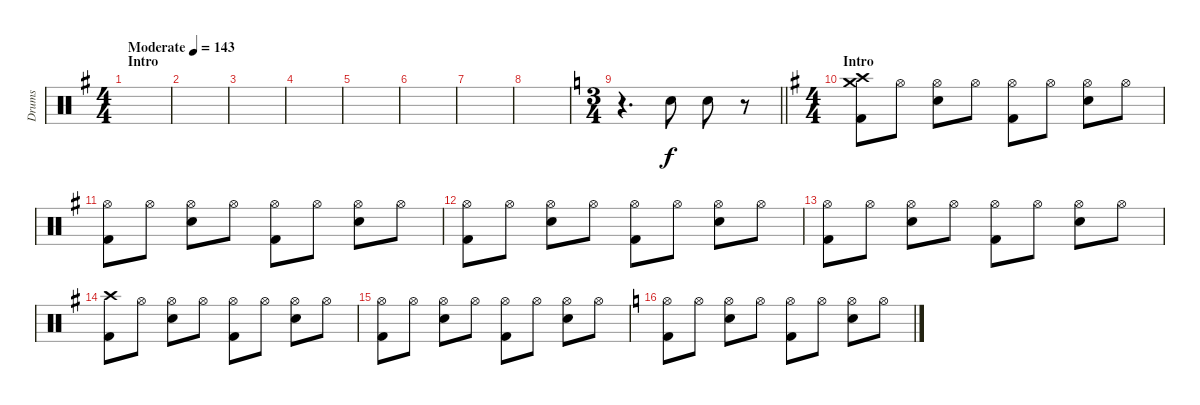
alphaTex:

\track ("Drums" "Drums") {instrument percussion}
\staff {score}
\articulation defaults
\ts (4 4)
\section ("" "Intro ")
\tempo (143 "Moderate")
\clef neutral
\ks g
|
|
|
|
|
|
|
|
\ts (3 4)
\barLineRight lightlight
\ks c
r.4{d} "Snare (hit) 2".8 "Snare (hit) 2".8 r.8 |
\ts (4 4)
\section ("" "Intro")
\ks g
("Crash medium (hit)" "Crash high (hit)" "Kick (hit) 2").8 "Hi-Hat (open)".8 ("Hi-Hat (open)" "Snare (hit) 2").8 "Hi-Hat (open)".8 ("Hi-Hat (open)" "Kick (hit) 2").8 "Hi-Hat (open)".8 ("Hi-Hat (open)" "Snare (hit) 2").8 "Hi-Hat (open)".8 |
("Hi-Hat (open)" "Kick (hit) 2").8 "Hi-Hat (open)".8 ("Hi-Hat (open)" "Snare (hit) 2").8 "Hi-Hat (open)".8 ("Hi-Hat (open)" "Kick (hit) 2").8 "Hi-Hat (open)".8 ("Hi-Hat (open)" "Snare (hit) 2").8 "Hi-Hat (open)".8 |
("Hi-Hat (open)" "Kick (hit) 2").8 "Hi-Hat (open)".8 ("Hi-Hat (open)" "Snare (hit) 2").8 "Hi-Hat (open)".8 ("Hi-Hat (open)" "Kick (hit) 2").8 "Hi-Hat (open)".8 ("Hi-Hat (open)" "Snare (hit) 2").8 "Hi-Hat (open)".8 |
("Hi-Hat (open)" "Kick (hit) 2").8 "Hi-Hat (open)".8 ("Hi-Hat (open)" "Snare (hit) 2").8 "Hi-Hat (open)".8 ("Hi-Hat (open)" "Kick (hit) 2").8 "Hi-Hat (open)".8 ("Hi-Hat (open)" "Snare (hit) 2").8 "Hi-Hat (open)".8 |
("Crash high (hit)" "Kick (hit) 2").8 "Hi-Hat (open)".8 ("Hi-Hat (open)" "Snare (hit) 2").8 "Hi-Hat (open)".8 ("Hi-Hat (open)" "Kick (hit) 2").8 "Hi-Hat (open)".8 ("Hi-Hat (open)" "Snare (hit) 2").8 "Hi-Hat (open)".8 |
("Hi-Hat (open)" "Kick (hit) 2").8 "Hi-Hat (open)".8 ("Hi-Hat (open)" "Snare (hit) 2").8 "Hi-Hat (open)".8 ("Hi-Hat (open)" "Kick (hit) 2").8 "Hi-Hat (open)".8 ("Hi-Hat (open)" "Snare (hit) 2").8 "Hi-Hat (open)".8 |
\ks c
("Hi-Hat (open)" "Kick (hit) 2").8 "Hi-Hat (open)".8 ("Hi-Hat (open)" "Snare (hit) 2").8 "Hi-Hat (open)".8 ("Hi-Hat (open)" "Kick (hit) 2").8 "Hi-Hat (open)".8 ("Hi-Hat (open)" "Snare (hit) 2").8 "Hi-Hat (open)".8
